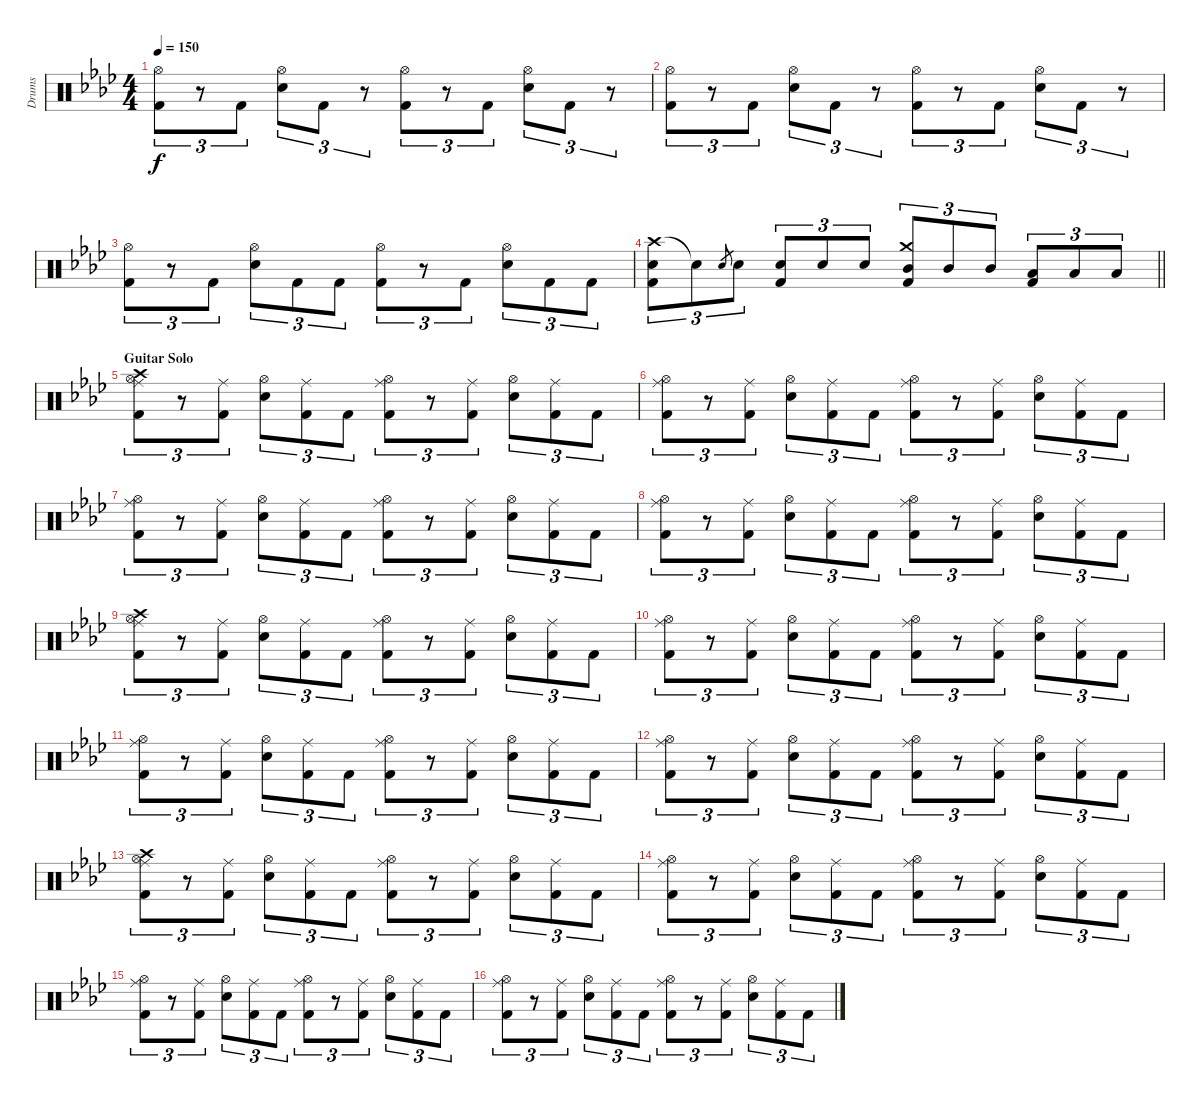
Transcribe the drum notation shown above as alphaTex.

\track ("Drums" "Drums") {instrument percussion}
\staff {score}
\articulation defaults
\ts (4 4)
\tempo 150
\clef neutral
\ks fminor
("Hi-Hat (open)" "Kick (hit) 2").8{tu (3 2) dy f} r.8{tu (3 2)} "Kick (hit) 2".8{tu (3 2)} ("Hi-Hat (open)" "Snare (hit) 2").8{tu (3 2)} "Kick (hit) 2".8{tu (3 2)} r.8{tu (3 2)} ("Hi-Hat (open)" "Kick (hit) 2").8{tu (3 2)} r.8{tu (3 2)} "Kick (hit) 2".8{tu (3 2)} ("Hi-Hat (open)" "Snare (hit) 2").8{tu (3 2)} "Kick (hit) 2".8{tu (3 2)} r.8{tu (3 2)} |
("Hi-Hat (open)" "Kick (hit) 2").8{tu (3 2)} r.8{tu (3 2)} "Kick (hit) 2".8{tu (3 2)} ("Hi-Hat (open)" "Snare (hit) 2").8{tu (3 2)} "Kick (hit) 2".8{tu (3 2)} r.8{tu (3 2)} ("Hi-Hat (open)" "Kick (hit) 2").8{tu (3 2)} r.8{tu (3 2)} "Kick (hit) 2".8{tu (3 2)} ("Hi-Hat (open)" "Snare (hit) 2").8{tu (3 2)} "Kick (hit) 2".8{tu (3 2)} r.8{tu (3 2)} |
("Hi-Hat (open)" "Kick (hit) 2").8{tu (3 2)} r.8{tu (3 2)} "Kick (hit) 2".8{tu (3 2)} ("Hi-Hat (open)" "Snare (hit) 2").8{tu (3 2)} "Kick (hit) 2".8{tu (3 2)} "Kick (hit) 2".8{tu (3 2)} ("Hi-Hat (open)" "Kick (hit) 2").8{tu (3 2)} r.8{tu (3 2)} "Kick (hit) 2".8{tu (3 2)} ("Hi-Hat (open)" "Snare (hit) 2").8{tu (3 2)} "Kick (hit) 2".8{tu (3 2)} "Kick (hit) 2".8{tu (3 2)} |
\barLineRight lightlight
("Crash high (hit)" "Snare (hit) 2" "Kick (hit) 2").8{tu (3 2)} "Snare (hit) 2"{t}.8{tu (3 2)} "Snare (hit) 2".8{gr} "Snare (hit) 2".8{tu (3 2)} ("Snare (hit) 2" "Kick (hit) 2").8{tu (3 2)} "Snare (hit) 2".8{tu (3 2)} "Snare (hit) 2".8{tu (3 2)} ("Crash medium (hit)" "Mid Tom (hit)" "Kick (hit) 2").8{tu (3 2)} "Mid Tom (hit)".8{tu (3 2)} "Mid Tom (hit)".8{tu (3 2)} ("Low Tom (hit)" "Kick (hit) 2").8{tu (3 2)} "Low Tom (hit)".8{tu (3 2)} "Low Tom (hit)".8{tu (3 2)} |
\section ("" "Guitar Solo")
("Crash high (hit)" "Hi-Hat (open)" "Ride (middle)" "Kick (hit) 2").8{tu (3 2)} r.8{tu (3 2)} ("Ride (middle)" "Kick (hit) 2").8{tu (3 2)} ("Hi-Hat (open)" "Snare (hit) 2").8{tu (3 2)} ("Ride (middle)" "Kick (hit) 2").8{tu (3 2)} "Kick (hit) 2".8{tu (3 2)} ("Hi-Hat (open)" "Ride (middle)" "Kick (hit) 2").8{tu (3 2)} r.8{tu (3 2)} ("Ride (middle)" "Kick (hit) 2").8{tu (3 2)} ("Hi-Hat (open)" "Snare (hit) 2").8{tu (3 2)} ("Ride (middle)" "Kick (hit) 2").8{tu (3 2)} "Kick (hit) 2".8{tu (3 2)} |
("Hi-Hat (open)" "Ride (middle)" "Kick (hit) 2").8{tu (3 2)} r.8{tu (3 2)} ("Ride (middle)" "Kick (hit) 2").8{tu (3 2)} ("Hi-Hat (open)" "Snare (hit) 2").8{tu (3 2)} ("Ride (middle)" "Kick (hit) 2").8{tu (3 2)} "Kick (hit) 2".8{tu (3 2)} ("Hi-Hat (open)" "Ride (middle)" "Kick (hit) 2").8{tu (3 2)} r.8{tu (3 2)} ("Ride (middle)" "Kick (hit) 2").8{tu (3 2)} ("Hi-Hat (open)" "Snare (hit) 2").8{tu (3 2)} ("Ride (middle)" "Kick (hit) 2").8{tu (3 2)} "Kick (hit) 2".8{tu (3 2)} |
("Hi-Hat (open)" "Ride (middle)" "Kick (hit) 2").8{tu (3 2)} r.8{tu (3 2)} ("Ride (middle)" "Kick (hit) 2").8{tu (3 2)} ("Hi-Hat (open)" "Snare (hit) 2").8{tu (3 2)} ("Ride (middle)" "Kick (hit) 2").8{tu (3 2)} "Kick (hit) 2".8{tu (3 2)} ("Hi-Hat (open)" "Ride (middle)" "Kick (hit) 2").8{tu (3 2)} r.8{tu (3 2)} ("Ride (middle)" "Kick (hit) 2").8{tu (3 2)} ("Hi-Hat (open)" "Snare (hit) 2").8{tu (3 2)} ("Ride (middle)" "Kick (hit) 2").8{tu (3 2)} "Kick (hit) 2".8{tu (3 2)} |
("Hi-Hat (open)" "Ride (middle)" "Kick (hit) 2").8{tu (3 2)} r.8{tu (3 2)} ("Ride (middle)" "Kick (hit) 2").8{tu (3 2)} ("Hi-Hat (open)" "Snare (hit) 2").8{tu (3 2)} ("Ride (middle)" "Kick (hit) 2").8{tu (3 2)} "Kick (hit) 2".8{tu (3 2)} ("Hi-Hat (open)" "Ride (middle)" "Kick (hit) 2").8{tu (3 2)} r.8{tu (3 2)} ("Ride (middle)" "Kick (hit) 2").8{tu (3 2)} ("Hi-Hat (open)" "Snare (hit) 2").8{tu (3 2)} ("Ride (middle)" "Kick (hit) 2").8{tu (3 2)} "Kick (hit) 2".8{tu (3 2)} |
("Crash high (hit)" "Hi-Hat (open)" "Ride (middle)" "Kick (hit) 2").8{tu (3 2)} r.8{tu (3 2)} ("Ride (middle)" "Kick (hit) 2").8{tu (3 2)} ("Hi-Hat (open)" "Snare (hit) 2").8{tu (3 2)} ("Ride (middle)" "Kick (hit) 2").8{tu (3 2)} "Kick (hit) 2".8{tu (3 2)} ("Hi-Hat (open)" "Ride (middle)" "Kick (hit) 2").8{tu (3 2)} r.8{tu (3 2)} ("Ride (middle)" "Kick (hit) 2").8{tu (3 2)} ("Hi-Hat (open)" "Snare (hit) 2").8{tu (3 2)} ("Ride (middle)" "Kick (hit) 2").8{tu (3 2)} "Kick (hit) 2".8{tu (3 2)} |
("Hi-Hat (open)" "Ride (middle)" "Kick (hit) 2").8{tu (3 2)} r.8{tu (3 2)} ("Ride (middle)" "Kick (hit) 2").8{tu (3 2)} ("Hi-Hat (open)" "Snare (hit) 2").8{tu (3 2)} ("Ride (middle)" "Kick (hit) 2").8{tu (3 2)} "Kick (hit) 2".8{tu (3 2)} ("Hi-Hat (open)" "Ride (middle)" "Kick (hit) 2").8{tu (3 2)} r.8{tu (3 2)} ("Ride (middle)" "Kick (hit) 2").8{tu (3 2)} ("Hi-Hat (open)" "Snare (hit) 2").8{tu (3 2)} ("Ride (middle)" "Kick (hit) 2").8{tu (3 2)} "Kick (hit) 2".8{tu (3 2)} |
("Hi-Hat (open)" "Ride (middle)" "Kick (hit) 2").8{tu (3 2)} r.8{tu (3 2)} ("Ride (middle)" "Kick (hit) 2").8{tu (3 2)} ("Hi-Hat (open)" "Snare (hit) 2").8{tu (3 2)} ("Ride (middle)" "Kick (hit) 2").8{tu (3 2)} "Kick (hit) 2".8{tu (3 2)} ("Hi-Hat (open)" "Ride (middle)" "Kick (hit) 2").8{tu (3 2)} r.8{tu (3 2)} ("Ride (middle)" "Kick (hit) 2").8{tu (3 2)} ("Hi-Hat (open)" "Snare (hit) 2").8{tu (3 2)} ("Ride (middle)" "Kick (hit) 2").8{tu (3 2)} "Kick (hit) 2".8{tu (3 2)} |
("Hi-Hat (open)" "Ride (middle)" "Kick (hit) 2").8{tu (3 2)} r.8{tu (3 2)} ("Ride (middle)" "Kick (hit) 2").8{tu (3 2)} ("Hi-Hat (open)" "Snare (hit) 2").8{tu (3 2)} ("Ride (middle)" "Kick (hit) 2").8{tu (3 2)} "Kick (hit) 2".8{tu (3 2)} ("Hi-Hat (open)" "Ride (middle)" "Kick (hit) 2").8{tu (3 2)} r.8{tu (3 2)} ("Ride (middle)" "Kick (hit) 2").8{tu (3 2)} ("Hi-Hat (open)" "Snare (hit) 2").8{tu (3 2)} ("Ride (middle)" "Kick (hit) 2").8{tu (3 2)} "Kick (hit) 2".8{tu (3 2)} |
("Crash high (hit)" "Hi-Hat (open)" "Ride (middle)" "Kick (hit) 2").8{tu (3 2)} r.8{tu (3 2)} ("Ride (middle)" "Kick (hit) 2").8{tu (3 2)} ("Hi-Hat (open)" "Snare (hit) 2").8{tu (3 2)} ("Ride (middle)" "Kick (hit) 2").8{tu (3 2)} "Kick (hit) 2".8{tu (3 2)} ("Hi-Hat (open)" "Ride (middle)" "Kick (hit) 2").8{tu (3 2)} r.8{tu (3 2)} ("Ride (middle)" "Kick (hit) 2").8{tu (3 2)} ("Hi-Hat (open)" "Snare (hit) 2").8{tu (3 2)} ("Ride (middle)" "Kick (hit) 2").8{tu (3 2)} "Kick (hit) 2".8{tu (3 2)} |
("Hi-Hat (open)" "Ride (middle)" "Kick (hit) 2").8{tu (3 2)} r.8{tu (3 2)} ("Ride (middle)" "Kick (hit) 2").8{tu (3 2)} ("Hi-Hat (open)" "Snare (hit) 2").8{tu (3 2)} ("Ride (middle)" "Kick (hit) 2").8{tu (3 2)} "Kick (hit) 2".8{tu (3 2)} ("Hi-Hat (open)" "Ride (middle)" "Kick (hit) 2").8{tu (3 2)} r.8{tu (3 2)} ("Ride (middle)" "Kick (hit) 2").8{tu (3 2)} ("Hi-Hat (open)" "Snare (hit) 2").8{tu (3 2)} ("Ride (middle)" "Kick (hit) 2").8{tu (3 2)} "Kick (hit) 2".8{tu (3 2)} |
("Hi-Hat (open)" "Ride (middle)" "Kick (hit) 2").8{tu (3 2)} r.8{tu (3 2)} ("Ride (middle)" "Kick (hit) 2").8{tu (3 2)} ("Hi-Hat (open)" "Snare (hit) 2").8{tu (3 2)} ("Ride (middle)" "Kick (hit) 2").8{tu (3 2)} "Kick (hit) 2".8{tu (3 2)} ("Hi-Hat (open)" "Ride (middle)" "Kick (hit) 2").8{tu (3 2)} r.8{tu (3 2)} ("Ride (middle)" "Kick (hit) 2").8{tu (3 2)} ("Hi-Hat (open)" "Snare (hit) 2").8{tu (3 2)} ("Ride (middle)" "Kick (hit) 2").8{tu (3 2)} "Kick (hit) 2".8{tu (3 2)} |
("Hi-Hat (open)" "Ride (middle)" "Kick (hit) 2").8{tu (3 2)} r.8{tu (3 2)} ("Ride (middle)" "Kick (hit) 2").8{tu (3 2)} ("Hi-Hat (open)" "Snare (hit) 2").8{tu (3 2)} ("Ride (middle)" "Kick (hit) 2").8{tu (3 2)} "Kick (hit) 2".8{tu (3 2)} ("Hi-Hat (open)" "Ride (middle)" "Kick (hit) 2").8{tu (3 2)} r.8{tu (3 2)} ("Ride (middle)" "Kick (hit) 2").8{tu (3 2)} ("Hi-Hat (open)" "Snare (hit) 2").8{tu (3 2)} ("Ride (middle)" "Kick (hit) 2").8{tu (3 2)} "Kick (hit) 2".8{tu (3 2)}
